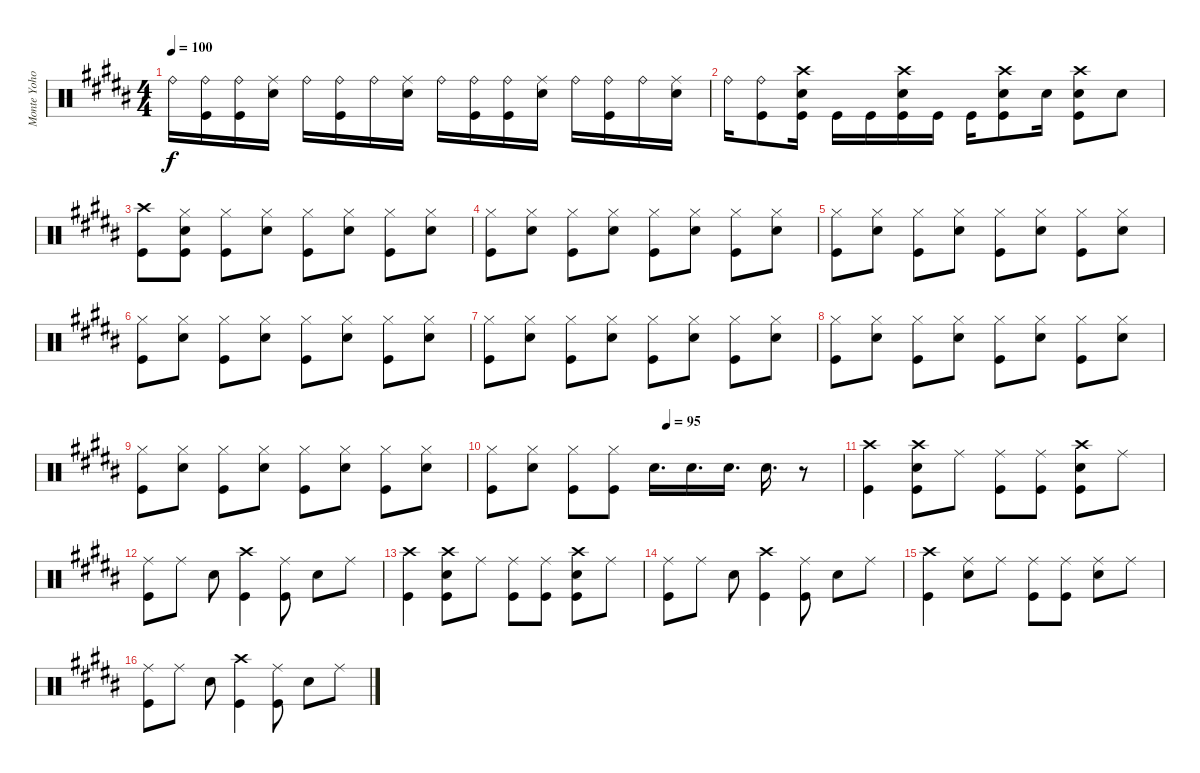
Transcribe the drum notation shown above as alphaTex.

\track ("Monte Yoho Drums" "Monte Yoho") {instrument percussion}
\staff {score}
\articulation defaults
\ts (4 4)
\tempo 100
\clef neutral
\ks g#minor "Ride (bell)".16{dy f}
("Ride (bell)" "Kick (hit)").16 ("Ride (bell)" "Kick (hit)").16 ("Ride (middle)" "Snare (hit) 2").16 "Ride (bell)".16 ("Ride (bell)" "Kick (hit)").16 "Ride (bell)".16 ("Ride (middle)" "Snare (hit) 2").16 "Ride (bell)".16 ("Ride (bell)" "Kick (hit)").16 ("Ride (bell)" "Kick (hit)").16 ("Ride (middle)" "Snare (hit) 2").16 "Ride (bell)".16 ("Ride (bell)" "Kick (hit)").16 "Ride (bell)".16 ("Ride (middle)" "Snare (hit) 2").16 |
"Ride (bell)".16 ("Ride (bell)" "Kick (hit)").8 ("Crash high (hit)" "Snare (hit) 2" "Kick (hit)").16 "Kick (hit)".16 "Kick (hit)".16 ("Crash high (hit)" "Snare (hit) 2" "Kick (hit)").16 "Kick (hit)".16 "Kick (hit)".16 ("Crash high (hit)" "Snare (hit) 2" "Kick (hit)").8 "Snare (hit) 2".16 ("Crash high (hit)" "Snare (hit) 2" "Kick (hit)").8 "Snare (hit) 2".8 |
("Crash high (hit)" "Kick (hit)").8 ("Hi-Hat (closed)" "Snare (hit) 2" "Kick (hit)").8 ("Hi-Hat (closed)" "Kick (hit)").8 ("Hi-Hat (closed)" "Snare (hit) 2").8 ("Hi-Hat (closed)" "Kick (hit)").8 ("Hi-Hat (closed)" "Snare (hit) 2").8 ("Hi-Hat (closed)" "Kick (hit)").8 ("Hi-Hat (closed)" "Snare (hit) 2").8 |
("Hi-Hat (closed)" "Kick (hit)").8 ("Hi-Hat (closed)" "Snare (hit) 2").8 ("Hi-Hat (closed)" "Kick (hit)").8 ("Hi-Hat (closed)" "Snare (hit) 2").8 ("Hi-Hat (closed)" "Kick (hit)").8 ("Hi-Hat (closed)" "Snare (hit) 2").8 ("Hi-Hat (closed)" "Kick (hit)").8 ("Hi-Hat (closed)" "Snare (hit) 2").8 |
("Hi-Hat (closed)" "Kick (hit)").8 ("Hi-Hat (closed)" "Snare (hit) 2").8 ("Hi-Hat (closed)" "Kick (hit)").8 ("Hi-Hat (closed)" "Snare (hit) 2").8 ("Hi-Hat (closed)" "Kick (hit)").8 ("Hi-Hat (closed)" "Snare (hit) 2").8 ("Hi-Hat (closed)" "Kick (hit)").8 ("Hi-Hat (closed)" "Snare (hit) 2").8 |
("Hi-Hat (closed)" "Kick (hit)").8 ("Hi-Hat (closed)" "Snare (hit) 2").8 ("Hi-Hat (closed)" "Kick (hit)").8 ("Hi-Hat (closed)" "Snare (hit) 2").8 ("Hi-Hat (closed)" "Kick (hit)").8 ("Hi-Hat (closed)" "Snare (hit) 2").8 ("Hi-Hat (closed)" "Kick (hit)").8 ("Hi-Hat (closed)" "Snare (hit) 2").8 |
("Hi-Hat (closed)" "Kick (hit)").8 ("Hi-Hat (closed)" "Snare (hit) 2").8 ("Hi-Hat (closed)" "Kick (hit)").8 ("Hi-Hat (closed)" "Snare (hit) 2").8 ("Hi-Hat (closed)" "Kick (hit)").8 ("Hi-Hat (closed)" "Snare (hit) 2").8 ("Hi-Hat (closed)" "Kick (hit)").8 ("Hi-Hat (closed)" "Snare (hit) 2").8 |
("Hi-Hat (closed)" "Kick (hit)").8 ("Hi-Hat (closed)" "Snare (hit) 2").8 ("Hi-Hat (closed)" "Kick (hit)").8 ("Hi-Hat (closed)" "Snare (hit) 2").8 ("Hi-Hat (closed)" "Kick (hit)").8 ("Hi-Hat (closed)" "Snare (hit) 2").8 ("Hi-Hat (closed)" "Kick (hit)").8 ("Hi-Hat (closed)" "Snare (hit) 2").8 |
("Hi-Hat (closed)" "Kick (hit)").8 ("Hi-Hat (closed)" "Snare (hit) 2").8 ("Hi-Hat (closed)" "Kick (hit)").8 ("Hi-Hat (closed)" "Snare (hit) 2").8 ("Hi-Hat (closed)" "Kick (hit)").8 ("Hi-Hat (closed)" "Snare (hit) 2").8 ("Hi-Hat (closed)" "Kick (hit)").8 ("Hi-Hat (closed)" "Snare (hit) 2").8 |
\tempo (95 0.5)
("Hi-Hat (closed)" "Kick (hit)").8 ("Hi-Hat (closed)" "Snare (hit) 2").8 ("Hi-Hat (closed)" "Kick (hit)").8 ("Hi-Hat (closed)" "Kick (hit)").8 "Snare (hit) 2".16{d} "Snare (hit) 2".16{d} "Snare (hit) 2".16{d} "Snare (hit) 2".16{d} r.8 |
("Crash high (hit)" "Kick (hit)").4{volume 13} ("Crash high (hit)" "Snare (hit) 2" "Kick (hit)").8 "Ride (middle)".8 ("Ride (middle)" "Kick (hit)").8 ("Ride (middle)" "Kick (hit)").8 ("Crash high (hit)" "Snare (hit) 2" "Kick (hit)").8 "Ride (middle)".8 |
("Ride (middle)" "Kick (hit)").8 "Ride (middle)".8 "Snare (hit) 2".8 ("Crash high (hit)" "Kick (hit)").4 ("Ride (middle)" "Kick (hit)").8 "Snare (hit) 2".8 "Ride (middle)".8 |
("Crash high (hit)" "Kick (hit)").4 ("Crash high (hit)" "Snare (hit) 2" "Kick (hit)").8 "Ride (middle)".8 ("Ride (middle)" "Kick (hit)").8 ("Ride (middle)" "Kick (hit)").8 ("Crash high (hit)" "Snare (hit) 2" "Kick (hit)").8 "Ride (middle)".8 |
("Ride (middle)" "Kick (hit)").8 "Ride (middle)".8 "Snare (hit) 2".8 ("Crash high (hit)" "Kick (hit)").4 ("Ride (middle)" "Kick (hit)").8 "Snare (hit) 2".8 "Ride (middle)".8 |
("Crash high (hit)" "Kick (hit)").4 ("Ride (middle)" "Snare (hit) 2").8 "Ride (middle)".8 ("Ride (middle)" "Kick (hit)").8 ("Ride (middle)" "Kick (hit)").8 ("Ride (middle)" "Snare (hit) 2").8 "Ride (middle)".8 |
("Ride (middle)" "Kick (hit)").8 "Ride (middle)".8 "Snare (hit) 2".8 ("Crash high (hit)" "Kick (hit)").4 ("Ride (middle)" "Kick (hit)").8 "Snare (hit) 2".8 "Ride (middle)".8
